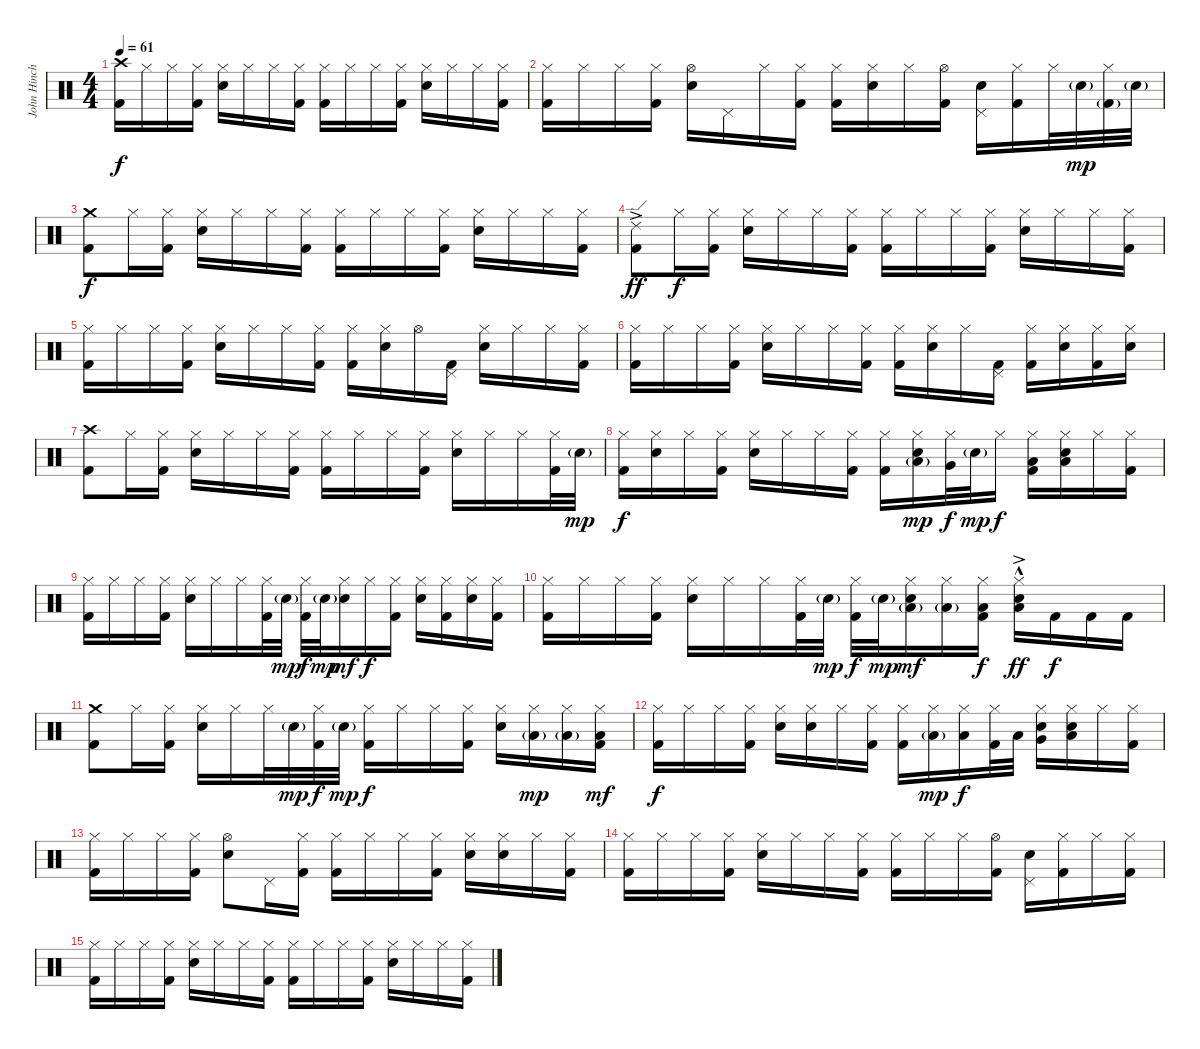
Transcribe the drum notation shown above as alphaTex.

\track ("John Hinch" "John Hinch") {instrument percussion}
\staff {score}
\articulation defaults
\ts (4 4)
\tempo 61
\clef neutral
\ks c
("Crash high (hit)" "Kick (hit) 2").16{dy f} "Hi-Hat (closed)".16 "Hi-Hat (closed)".16 ("Hi-Hat (closed)" "Kick (hit) 2").16 ("Hi-Hat (closed)" "Electric Snare (hit)").16 "Hi-Hat (closed)".16 "Hi-Hat (closed)".16 ("Hi-Hat (closed)" "Kick (hit) 2").16 ("Hi-Hat (closed)" "Kick (hit) 2").16 "Hi-Hat (closed)".16 "Hi-Hat (closed)".16 ("Hi-Hat (closed)" "Kick (hit) 2").16 ("Hi-Hat (closed)" "Electric Snare (hit)").16 "Hi-Hat (closed)".16 "Hi-Hat (closed)".16 ("Hi-Hat (closed)" "Kick (hit) 2").16 |
("Hi-Hat (closed)" "Kick (hit) 2").16 "Hi-Hat (closed)".16 "Hi-Hat (closed)".16 ("Hi-Hat (closed)" "Kick (hit) 2").16 ("Hi-Hat (open)" "Electric Snare (hit)").16 "Pedal Hi-Hat (hit)".16 "Hi-Hat (closed)".16 ("Hi-Hat (closed)" "Kick (hit) 2").16 ("Hi-Hat (closed)" "Kick (hit) 2").16 ("Hi-Hat (closed)" "Electric Snare (hit)").16 "Hi-Hat (closed)".16 ("Hi-Hat (open)" "Kick (hit) 2").16 ("Pedal Hi-Hat (hit)" "Electric Snare (hit)").16 ("Hi-Hat (closed)" "Kick (hit) 2").16 "Hi-Hat (closed)".32 "Electric Snare (hit)"{g}.32{dy mp} ("Hi-Hat (closed)" "Kick (hit) 2"{g}).32 "Electric Snare (hit)"{g}.32 |
("Crash medium (hit)" "Kick (hit) 2").8{dy f} "Hi-Hat (closed)".16 ("Hi-Hat (closed)" "Kick (hit) 2").16 ("Hi-Hat (closed)" "Electric Snare (hit)").16 "Hi-Hat (closed)".16 "Hi-Hat (closed)".16 ("Hi-Hat (closed)" "Kick (hit) 2").16 ("Hi-Hat (closed)" "Kick (hit) 2").16 "Hi-Hat (closed)".16 "Hi-Hat (closed)".16 ("Hi-Hat (closed)" "Kick (hit) 2").16 ("Hi-Hat (closed)" "Electric Snare (hit)").16 "Hi-Hat (closed)".16 "Hi-Hat (closed)".16 ("Hi-Hat (closed)" "Kick (hit) 2").16 |
("Ride (edge) 2"{ac} "Kick (hit) 2").8{dy ff} "Hi-Hat (closed)".16{dy f} ("Hi-Hat (closed)" "Kick (hit) 2").16 ("Hi-Hat (closed)" "Electric Snare (hit)").16 "Hi-Hat (closed)".16 "Hi-Hat (closed)".16 ("Hi-Hat (closed)" "Kick (hit) 2").16 ("Hi-Hat (closed)" "Kick (hit) 2").16 "Hi-Hat (closed)".16 "Hi-Hat (closed)".16 ("Hi-Hat (closed)" "Kick (hit) 2").16 ("Hi-Hat (closed)" "Electric Snare (hit)").16 "Hi-Hat (closed)".16 "Hi-Hat (closed)".16 ("Hi-Hat (closed)" "Kick (hit) 2").16 |
("Hi-Hat (closed)" "Kick (hit) 2").16 "Hi-Hat (closed)".16 "Hi-Hat (closed)".16 ("Hi-Hat (closed)" "Kick (hit) 2").16 ("Hi-Hat (closed)" "Electric Snare (hit)").16 "Hi-Hat (closed)".16 "Hi-Hat (closed)".16 ("Hi-Hat (closed)" "Kick (hit) 2").16 ("Hi-Hat (closed)" "Kick (hit) 2").16 ("Hi-Hat (closed)" "Electric Snare (hit)").16 "Hi-Hat (open)".16 ("Pedal Hi-Hat (hit)" "Kick (hit) 2").16 ("Hi-Hat (closed)" "Electric Snare (hit)").16 "Hi-Hat (closed)".16 "Hi-Hat (closed)".16 ("Hi-Hat (closed)" "Kick (hit) 2").16 |
("Hi-Hat (closed)" "Kick (hit) 2").16 "Hi-Hat (closed)".16 "Hi-Hat (closed)".16 ("Hi-Hat (closed)" "Kick (hit) 2").16 ("Hi-Hat (closed)" "Electric Snare (hit)").16 "Hi-Hat (closed)".16 "Hi-Hat (closed)".16 ("Hi-Hat (closed)" "Kick (hit) 2").16 ("Hi-Hat (closed)" "Kick (hit) 2").16 ("Hi-Hat (closed)" "Electric Snare (hit)").16 "Hi-Hat (closed)".16 ("Pedal Hi-Hat (hit)" "Kick (hit) 2").16 ("Hi-Hat (closed)" "Kick (hit) 2").16 ("Hi-Hat (closed)" "Electric Snare (hit)").16 ("Hi-Hat (closed)" "Kick (hit) 2").16 ("Hi-Hat (closed)" "Electric Snare (hit)").16 |
("Crash high (hit)" "Kick (hit) 2").8 "Hi-Hat (closed)".16 ("Hi-Hat (closed)" "Kick (hit) 2").16 ("Hi-Hat (closed)" "Electric Snare (hit)").16 "Hi-Hat (closed)".16 "Hi-Hat (closed)".16 ("Hi-Hat (closed)" "Kick (hit) 2").16 ("Hi-Hat (closed)" "Kick (hit) 2").16 "Hi-Hat (closed)".16 "Hi-Hat (closed)".16 ("Hi-Hat (closed)" "Kick (hit) 2").16 ("Hi-Hat (closed)" "Electric Snare (hit)").16 "Hi-Hat (closed)".16 "Hi-Hat (closed)".16 ("Hi-Hat (closed)" "Kick (hit) 2").32 "Electric Snare (hit)"{g}.32{dy mp} |
("Hi-Hat (closed)" "Kick (hit) 2").16{dy f} ("Hi-Hat (closed)" "Electric Snare (hit)").16 "Hi-Hat (closed)".16 ("Hi-Hat (closed)" "Kick (hit) 2").16 ("Hi-Hat (closed)" "Electric Snare (hit)").16 "Hi-Hat (closed)".16 "Hi-Hat (closed)".16 ("Hi-Hat (closed)" "Kick (hit) 2").16 ("Hi-Hat (closed)" "Kick (hit) 2").16 ("Hi-Hat (closed)" "Low Tom (hit)"{g} "Electric Snare (hit)").16{dy mp} ("Hi-Hat (closed)" "Very Low Tom (hit)").32{dy f} "Electric Snare (hit)"{g}.32{dy mp} "Hi-Hat (closed)".16{dy f} ("Hi-Hat (closed)" "Low Floor Tom (hit)" "Kick (hit) 2").16 ("Hi-Hat (closed)" "Low Floor Tom (hit)" "Electric Snare (hit)").16 "Hi-Hat (closed)".16 ("Hi-Hat (closed)" "Kick (hit) 2").16 |
("Hi-Hat (closed)" "Kick (hit) 2").16 "Hi-Hat (closed)".16 "Hi-Hat (closed)".16 ("Hi-Hat (closed)" "Kick (hit) 2").16 ("Hi-Hat (closed)" "Electric Snare (hit)").16 "Hi-Hat (closed)".16 "Hi-Hat (closed)".16 ("Hi-Hat (closed)" "Kick (hit) 2").32 "Electric Snare (hit)"{g}.32{dy mp} ("Hi-Hat (closed)" "Kick (hit) 2").32{dy f} "Electric Snare (hit)"{g}.32{dy mp} ("Hi-Hat (closed)" "Electric Snare (hit)").16{dy mf} "Hi-Hat (closed)".16{dy f} ("Hi-Hat (closed)" "Kick (hit) 2").16 ("Hi-Hat (closed)" "Electric Snare (hit)").16 ("Hi-Hat (closed)" "Kick (hit) 2").16 ("Hi-Hat (closed)" "Electric Snare (hit)").16 ("Hi-Hat (closed)" "Kick (hit) 2").16 |
("Hi-Hat (closed)" "Kick (hit) 2").16 "Hi-Hat (closed)".16 "Hi-Hat (closed)".16 ("Hi-Hat (closed)" "Kick (hit) 2").16 ("Hi-Hat (closed)" "Electric Snare (hit)").16 "Hi-Hat (closed)".16 "Hi-Hat (closed)".16 ("Hi-Hat (closed)" "Kick (hit) 2").32 "Electric Snare (hit)"{g}.32{dy mp} ("Hi-Hat (closed)" "Kick (hit) 2").32{dy f} "Electric Snare (hit)"{g}.32{dy mp} ("Hi-Hat (closed)" "Low Tom (hit)"{g} "Electric Snare (hit)").16{dy mf} ("Hi-Hat (closed)" "Low Tom (hit)"{g}).16 ("Hi-Hat (closed)" "Low Tom (hit)" "Kick (hit) 2").16{dy f} ("Hi-Hat (closed)"{hac} "Low Tom (hit)"{ac} "Electric Snare (hit)").16{dy ff} "Kick (hit) 2".16{dy f} "Kick (hit) 2".16 "Kick (hit) 2".16 |
("Crash medium (hit)" "Kick (hit) 2").8 "Hi-Hat (closed)".16 ("Hi-Hat (closed)" "Kick (hit) 2").16 ("Hi-Hat (closed)" "Electric Snare (hit)").16 "Hi-Hat (closed)".16 "Hi-Hat (closed)".32 "Electric Snare (hit)"{g}.32{dy mp} ("Hi-Hat (closed)" "Kick (hit) 2").32{dy f} "Electric Snare (hit)"{g}.32{dy mp} ("Hi-Hat (closed)" "Kick (hit) 2").16{dy f} "Hi-Hat (closed)".16 "Hi-Hat (closed)".16 ("Hi-Hat (closed)" "Kick (hit) 2").16 ("Hi-Hat (closed)" "Electric Snare (hit)").16 ("Hi-Hat (closed)" "Low Tom (hit)"{g}).16{dy mp} ("Hi-Hat (closed)" "Low Tom (hit)"{g}).16 ("Hi-Hat (closed)" "Low Tom (hit)" "Kick (hit) 2").16{dy mf} |
("Hi-Hat (closed)" "Kick (hit) 2").16{dy f} "Hi-Hat (closed)".16 "Hi-Hat (closed)".16 ("Hi-Hat (closed)" "Kick (hit) 2").16 ("Hi-Hat (closed)" "Electric Snare (hit)").16 ("Hi-Hat (closed)" "Electric Snare (hit)").16 "Hi-Hat (closed)".16 ("Hi-Hat (closed)" "Kick (hit) 2").16 ("Hi-Hat (closed)" "Kick (hit) 2").16 ("Hi-Hat (closed)" "Low Tom (hit)"{g}).16{dy mp} ("Hi-Hat (closed)" "Low Tom (hit)").16{dy f} ("Hi-Hat (closed)" "Kick (hit) 2").32 "Low Tom (hit)".32 ("Hi-Hat (closed)" "Very Low Tom (hit)" "Electric Snare (hit)").16 ("Hi-Hat (closed)" "Low Tom (hit)" "Electric Snare (hit)").16 "Hi-Hat (closed)".16 ("Hi-Hat (closed)" "Kick (hit) 2").16 |
("Hi-Hat (closed)" "Kick (hit) 2").16 "Hi-Hat (closed)".16 "Hi-Hat (closed)".16 ("Hi-Hat (closed)" "Kick (hit) 2").16 ("Hi-Hat (open)" "Electric Snare (hit)").8 "Pedal Hi-Hat (hit)".16 ("Hi-Hat (closed)" "Kick (hit) 2").16 ("Hi-Hat (closed)" "Kick (hit) 2").16 "Hi-Hat (closed)".16 "Hi-Hat (closed)".16 ("Hi-Hat (closed)" "Kick (hit) 2").16 ("Hi-Hat (closed)" "Electric Snare (hit)").16 ("Hi-Hat (closed)" "Electric Snare (hit)").16 "Hi-Hat (closed)".16 ("Hi-Hat (closed)" "Kick (hit) 2").16 |
("Hi-Hat (closed)" "Kick (hit) 2").16 "Hi-Hat (closed)".16 "Hi-Hat (closed)".16 ("Hi-Hat (closed)" "Kick (hit) 2").16 ("Hi-Hat (closed)" "Electric Snare (hit)").16 "Hi-Hat (closed)".16 "Hi-Hat (closed)".16 ("Hi-Hat (closed)" "Kick (hit) 2").16 ("Hi-Hat (closed)" "Kick (hit) 2").16 "Hi-Hat (closed)".16 "Hi-Hat (closed)".16 ("Hi-Hat (open)" "Kick (hit) 2").16 ("Pedal Hi-Hat (hit)" "Electric Snare (hit)").16 ("Hi-Hat (closed)" "Kick (hit) 2").16 "Hi-Hat (closed)".16 ("Hi-Hat (closed)" "Kick (hit) 2").16 |
("Hi-Hat (closed)" "Kick (hit) 2").16 "Hi-Hat (closed)".16 "Hi-Hat (closed)".16 ("Hi-Hat (closed)" "Kick (hit) 2").16 ("Hi-Hat (closed)" "Electric Snare (hit)").16 "Hi-Hat (closed)".16 "Hi-Hat (closed)".16 ("Hi-Hat (closed)" "Kick (hit) 2").16 ("Hi-Hat (closed)" "Kick (hit) 2").16 "Hi-Hat (closed)".16 "Hi-Hat (closed)".16 ("Hi-Hat (closed)" "Kick (hit) 2").16 ("Hi-Hat (closed)" "Electric Snare (hit)").16 "Hi-Hat (closed)".16 "Hi-Hat (closed)".16 ("Hi-Hat (closed)" "Kick (hit) 2").16
